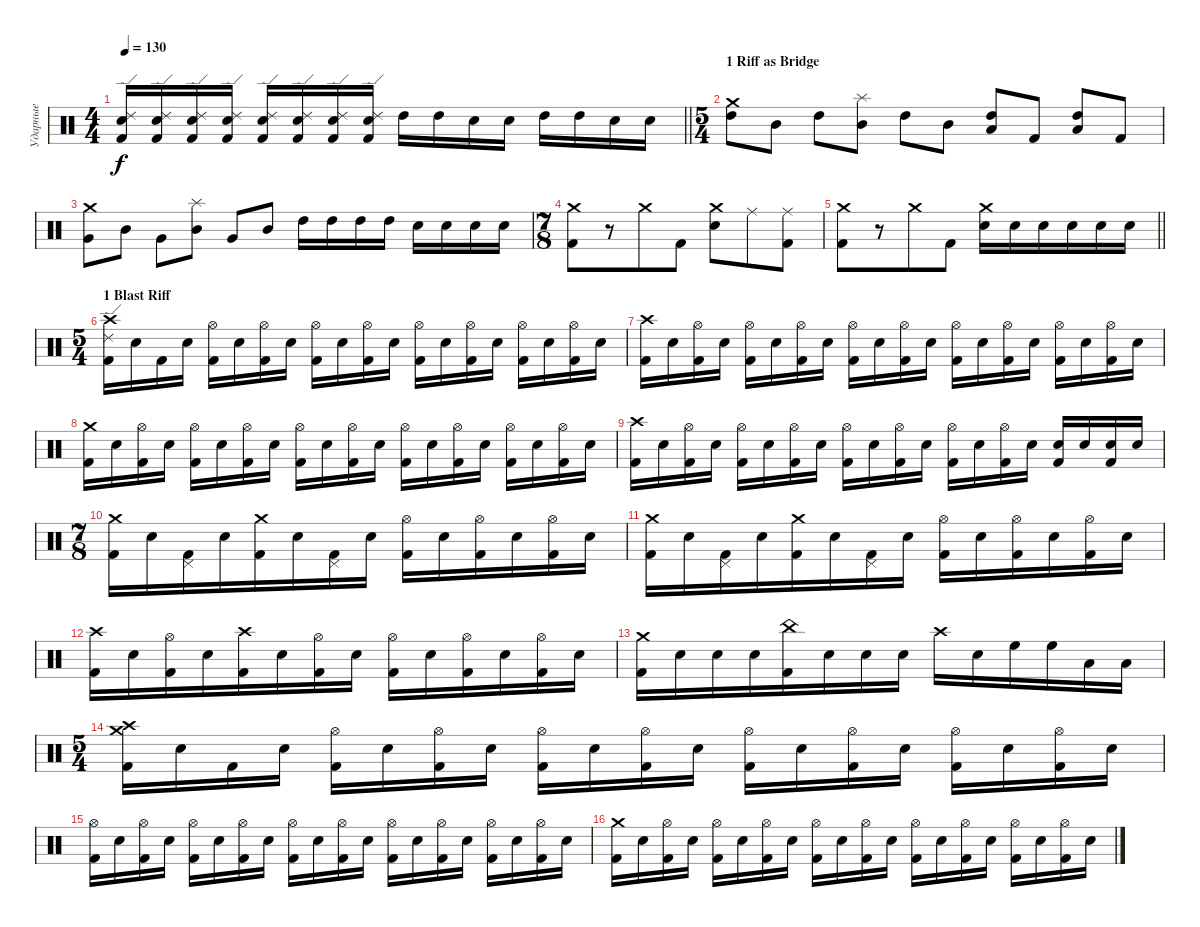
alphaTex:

\track ("Ударные" "Ударные") {instrument percussion}
\staff {score}
\articulation defaults
\ts (4 4)
\tempo 130
\clef neutral
\barLineRight lightlight
\ks c
("Ride (edge) 2" "Snare (hit) 2" "Kick (hit) 2").16{dy f} ("Ride (edge) 2" "Snare (hit) 2" "Kick (hit) 2").16 ("Ride (edge) 2" "Snare (hit) 2" "Kick (hit) 2").16 ("Ride (edge) 2" "Snare (hit) 2" "Kick (hit) 2").16 ("Ride (edge) 2" "Snare (hit) 2" "Kick (hit) 2").16 ("Ride (edge) 2" "Snare (hit) 2" "Kick (hit) 2").16 ("Ride (edge) 2" "Snare (hit) 2" "Kick (hit) 2").16 ("Ride (edge) 2" "Snare (hit) 2" "Kick (hit) 2").16 "High Tom (hit)".16 "High Tom (hit)".16 "Electric Snare (hit)".16 "Electric Snare (hit)".16 "High Tom (hit)".16 "High Tom (hit)".16 "Electric Snare (hit)".16 "Electric Snare (hit)".16 |
\ts (5 4)
\section ("" "1 Riff as Bridge")
("Crash medium (hit)" "High Tom (hit)").8 "Mid Tom (hit)".8 "High Tom (hit)".8 ("Splash (hit)" "Mid Tom (hit)").8 "High Tom (hit)".8 "Mid Tom (hit)".8 ("High Tom (hit)" "Low Tom (hit)").8 "Kick (hit) 2".8 ("High Tom (hit)" "Low Tom (hit)").8 "Kick (hit) 2".8 |
("Crash medium (hit)" "Very Low Tom (hit)").8 "Mid Tom (hit)".8 "Very Low Tom (hit)".8 ("Splash (hit)" "Mid Tom (hit)").8 "Very Low Tom (hit)".8 "Mid Tom (hit)".8 "High Tom (hit)".16 "High Tom (hit)".16 "High Tom (hit)".16 "High Tom (hit)".16 "Electric Snare (hit)".16 "Electric Snare (hit)".16 "Electric Snare (hit)".16 "Electric Snare (hit)".16 |
\ts (7 8)
("Crash medium (hit)" "Kick (hit) 2").8 r.8 "Crash medium (hit)".8 "Kick (hit) 2".8 ("Crash medium (hit)" "Electric Snare (hit)").8 "Ride (middle)".8 ("Ride (middle)" "Kick (hit) 2").8 |
\barLineRight lightlight
("Crash medium (hit)" "Kick (hit) 2").8 r.8 "Crash medium (hit)".8 "Kick (hit) 2".8 ("Crash medium (hit)" "Electric Snare (hit)").16 "Electric Snare (hit)".16 "Electric Snare (hit)".16 "Electric Snare (hit)".16 "Electric Snare (hit)".16 "Electric Snare (hit)".16 |
\ts (5 4)
\section ("" "1 Blast Riff")
("Crash high (hit)" "Ride (edge) 2" "Kick (hit) 2").16 "Electric Snare (hit)".16 "Kick (hit) 2".16 "Electric Snare (hit)".16 ("Hi-Hat (open)" "Kick (hit) 2").16 "Electric Snare (hit)".16 ("Hi-Hat (open)" "Kick (hit) 2").16 "Electric Snare (hit)".16 ("Hi-Hat (open)" "Kick (hit) 2").16 "Electric Snare (hit)".16 ("Hi-Hat (open)" "Kick (hit) 2").16 "Electric Snare (hit)".16 ("Hi-Hat (open)" "Kick (hit) 2").16 "Electric Snare (hit)".16 ("Hi-Hat (open)" "Kick (hit) 2").16 "Electric Snare (hit)".16 ("Hi-Hat (open)" "Kick (hit) 2").16 "Electric Snare (hit)".16 ("Hi-Hat (open)" "Kick (hit) 2").16 "Electric Snare (hit)".16 |
("Crash high (hit)" "Kick (hit) 2").16 "Electric Snare (hit)".16 ("Hi-Hat (open)" "Kick (hit) 2").16 "Electric Snare (hit)".16 ("Hi-Hat (open)" "Kick (hit) 2").16 "Electric Snare (hit)".16 ("Hi-Hat (open)" "Kick (hit) 2").16 "Electric Snare (hit)".16 ("Hi-Hat (open)" "Kick (hit) 2").16 "Electric Snare (hit)".16 ("Hi-Hat (open)" "Kick (hit) 2").16 "Electric Snare (hit)".16 ("Hi-Hat (open)" "Kick (hit) 2").16 "Electric Snare (hit)".16 ("Hi-Hat (open)" "Kick (hit) 2").16 "Electric Snare (hit)".16 ("Hi-Hat (open)" "Kick (hit) 2").16 "Electric Snare (hit)".16 ("Hi-Hat (open)" "Kick (hit) 2").16 "Electric Snare (hit)".16 |
("Crash medium (hit)" "Kick (hit) 2").16 "Electric Snare (hit)".16 ("Hi-Hat (open)" "Kick (hit) 2").16 "Electric Snare (hit)".16 ("Hi-Hat (open)" "Kick (hit) 2").16 "Electric Snare (hit)".16 ("Hi-Hat (open)" "Kick (hit) 2").16 "Electric Snare (hit)".16 ("Hi-Hat (open)" "Kick (hit) 2").16 "Electric Snare (hit)".16 ("Hi-Hat (open)" "Kick (hit) 2").16 "Electric Snare (hit)".16 ("Hi-Hat (open)" "Kick (hit) 2").16 "Electric Snare (hit)".16 ("Hi-Hat (open)" "Kick (hit) 2").16 "Electric Snare (hit)".16 ("Hi-Hat (open)" "Kick (hit) 2").16 "Electric Snare (hit)".16 ("Hi-Hat (open)" "Kick (hit) 2").16 "Electric Snare (hit)".16 |
("Crash high (hit)" "Kick (hit) 2").16 "Electric Snare (hit)".16 ("Hi-Hat (open)" "Kick (hit) 2").16 "Electric Snare (hit)".16 ("Hi-Hat (open)" "Kick (hit) 2").16 "Electric Snare (hit)".16 ("Hi-Hat (open)" "Kick (hit) 2").16 "Electric Snare (hit)".16 ("Hi-Hat (open)" "Kick (hit) 2").16 "Electric Snare (hit)".16 ("Hi-Hat (open)" "Kick (hit) 2").16 "Electric Snare (hit)".16 ("Hi-Hat (open)" "Kick (hit) 2").16 "Electric Snare (hit)".16 ("Hi-Hat (open)" "Kick (hit) 2").16 "Electric Snare (hit)".16 ("Electric Snare (hit)" "Kick (hit) 2").16 "Electric Snare (hit)".16 ("Electric Snare (hit)" "Kick (hit) 2").16 "Electric Snare (hit)".16 |
\ts (7 8)
("Crash medium (hit)" "Kick (hit) 2").16 "Electric Snare (hit)".16 ("Pedal Hi-Hat (hit)" "Kick (hit) 2").16 "Electric Snare (hit)".16 ("Crash medium (hit)" "Kick (hit) 2").16 "Electric Snare (hit)".16 ("Pedal Hi-Hat (hit)" "Kick (hit) 2").16 "Electric Snare (hit)".16 ("Hi-Hat (open)" "Kick (hit) 2").16 "Electric Snare (hit)".16 ("Hi-Hat (open)" "Kick (hit) 2").16 "Electric Snare (hit)".16 ("Hi-Hat (open)" "Kick (hit) 2").16 "Electric Snare (hit)".16 |
("Crash medium (hit)" "Kick (hit) 2").16 "Electric Snare (hit)".16 ("Pedal Hi-Hat (hit)" "Kick (hit) 2").16 "Electric Snare (hit)".16 ("Crash medium (hit)" "Kick (hit) 2").16 "Electric Snare (hit)".16 ("Pedal Hi-Hat (hit)" "Kick (hit) 2").16 "Electric Snare (hit)".16 ("Hi-Hat (open)" "Kick (hit) 2").16 "Electric Snare (hit)".16 ("Hi-Hat (open)" "Kick (hit) 2").16 "Electric Snare (hit)".16 ("Hi-Hat (open)" "Kick (hit) 2").16 "Electric Snare (hit)".16 |
("Crash high (hit)" "Kick (hit) 2").16 "Electric Snare (hit)".16 ("Hi-Hat (open)" "Kick (hit) 2").16 "Electric Snare (hit)".16 ("Crash high (hit)" "Kick (hit) 2").16 "Electric Snare (hit)".16 ("Hi-Hat (open)" "Kick (hit) 2").16 "Electric Snare (hit)".16 ("Hi-Hat (open)" "Kick (hit) 2").16 "Electric Snare (hit)".16 ("Hi-Hat (open)" "Kick (hit) 2").16 "Electric Snare (hit)".16 ("Hi-Hat (open)" "Kick (hit) 2").16 "Electric Snare (hit)".16 |
("Crash medium (hit)" "Kick (hit) 2").16 "Electric Snare (hit)".16 "Electric Snare (hit)".16 "Electric Snare (hit)".16 ("China (hit)" "Kick (hit) 2").16 "Electric Snare (hit)".16 "Electric Snare (hit)".16 "Electric Snare (hit)".16 "Crash high (hit)".16 "Electric Snare (hit)".16 "High Floor Tom (hit)".16 "High Floor Tom (hit)".16 "Low Tom (hit)".16 "Low Tom (hit)".16 |
\ts (5 4)
("Crash medium (hit)" "Crash high (hit)" "Kick (hit) 2").16 "Electric Snare (hit)".16 "Kick (hit) 2".16 "Electric Snare (hit)".16 ("Hi-Hat (open)" "Kick (hit) 2").16 "Electric Snare (hit)".16 ("Hi-Hat (open)" "Kick (hit) 2").16 "Electric Snare (hit)".16 ("Hi-Hat (open)" "Kick (hit) 2").16 "Electric Snare (hit)".16 ("Hi-Hat (open)" "Kick (hit) 2").16 "Electric Snare (hit)".16 ("Hi-Hat (open)" "Kick (hit) 2").16 "Electric Snare (hit)".16 ("Hi-Hat (open)" "Kick (hit) 2").16 "Electric Snare (hit)".16 ("Hi-Hat (open)" "Kick (hit) 2").16 "Electric Snare (hit)".16 ("Hi-Hat (open)" "Kick (hit) 2").16 "Electric Snare (hit)".16 |
("Hi-Hat (open)" "Kick (hit) 2").16 "Electric Snare (hit)".16 ("Hi-Hat (open)" "Kick (hit) 2").16 "Electric Snare (hit)".16 ("Hi-Hat (open)" "Kick (hit) 2").16 "Electric Snare (hit)".16 ("Hi-Hat (open)" "Kick (hit) 2").16 "Electric Snare (hit)".16 ("Hi-Hat (open)" "Kick (hit) 2").16 "Electric Snare (hit)".16 ("Hi-Hat (open)" "Kick (hit) 2").16 "Electric Snare (hit)".16 ("Hi-Hat (open)" "Kick (hit) 2").16 "Electric Snare (hit)".16 ("Hi-Hat (open)" "Kick (hit) 2").16 "Electric Snare (hit)".16 ("Hi-Hat (open)" "Kick (hit) 2").16 "Electric Snare (hit)".16 ("Hi-Hat (open)" "Kick (hit) 2").16 "Electric Snare (hit)".16 |
("Crash medium (hit)" "Kick (hit) 2").16 "Electric Snare (hit)".16 ("Hi-Hat (open)" "Kick (hit) 2").16 "Electric Snare (hit)".16 ("Hi-Hat (open)" "Kick (hit) 2").16 "Electric Snare (hit)".16 ("Hi-Hat (open)" "Kick (hit) 2").16 "Electric Snare (hit)".16 ("Hi-Hat (open)" "Kick (hit) 2").16 "Electric Snare (hit)".16 ("Hi-Hat (open)" "Kick (hit) 2").16 "Electric Snare (hit)".16 ("Hi-Hat (open)" "Kick (hit) 2").16 "Electric Snare (hit)".16 ("Hi-Hat (open)" "Kick (hit) 2").16 "Electric Snare (hit)".16 ("Hi-Hat (open)" "Kick (hit) 2").16 "Electric Snare (hit)".16 ("Hi-Hat (open)" "Kick (hit) 2").16 "Electric Snare (hit)".16
